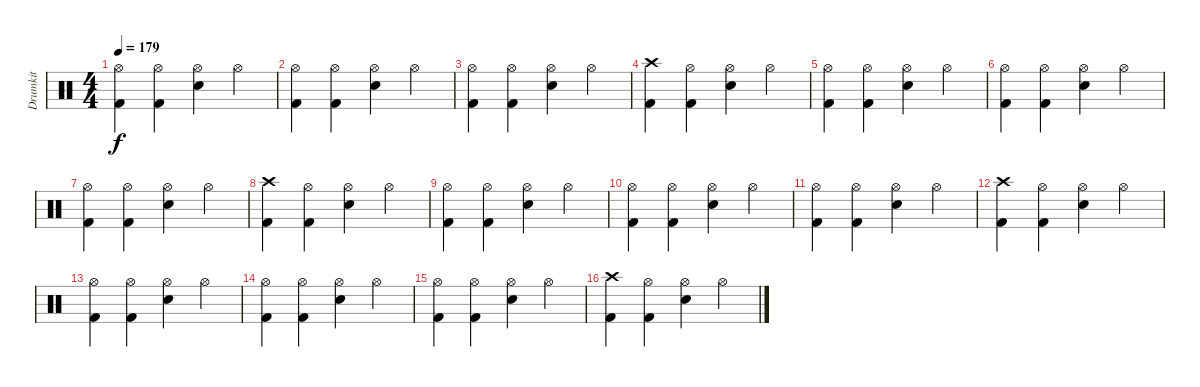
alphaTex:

\track ("Drumkit" "Drumkit") {instrument percussion}
\staff {score}
\articulation defaults
\ts (4 4)
\tempo 179
\clef neutral
\ks c
("Kick (hit) 2" "Hi-Hat (open)").4{dy f} ("Kick (hit) 2" "Hi-Hat (open)").4 ("Snare (hit) 2" "Hi-Hat (open)").4 "Hi-Hat (open)".4 |
("Kick (hit) 2" "Hi-Hat (open)").4 ("Kick (hit) 2" "Hi-Hat (open)").4 ("Snare (hit) 2" "Hi-Hat (open)").4 "Hi-Hat (open)".4 |
("Kick (hit) 2" "Hi-Hat (open)").4 ("Kick (hit) 2" "Hi-Hat (open)").4 ("Snare (hit) 2" "Hi-Hat (open)").4 "Hi-Hat (open)".4 |
("Kick (hit) 2" "Crash high (hit)").4 ("Kick (hit) 2" "Hi-Hat (open)").4 ("Snare (hit) 2" "Hi-Hat (open)").4 "Hi-Hat (open)".4 |
("Kick (hit) 2" "Hi-Hat (open)").4 ("Kick (hit) 2" "Hi-Hat (open)").4 ("Snare (hit) 2" "Hi-Hat (open)").4 "Hi-Hat (open)".4 |
("Kick (hit) 2" "Hi-Hat (open)").4 ("Kick (hit) 2" "Hi-Hat (open)").4 ("Snare (hit) 2" "Hi-Hat (open)").4 "Hi-Hat (open)".4 |
("Kick (hit) 2" "Hi-Hat (open)").4 ("Kick (hit) 2" "Hi-Hat (open)").4 ("Snare (hit) 2" "Hi-Hat (open)").4 "Hi-Hat (open)".4 |
("Kick (hit) 2" "Crash high (hit)").4 ("Kick (hit) 2" "Hi-Hat (open)").4 ("Snare (hit) 2" "Hi-Hat (open)").4 "Hi-Hat (open)".4 |
("Kick (hit) 2" "Hi-Hat (open)").4 ("Kick (hit) 2" "Hi-Hat (open)").4 ("Snare (hit) 2" "Hi-Hat (open)").4 "Hi-Hat (open)".4 |
("Kick (hit) 2" "Hi-Hat (open)").4 ("Kick (hit) 2" "Hi-Hat (open)").4 ("Snare (hit) 2" "Hi-Hat (open)").4 "Hi-Hat (open)".4 |
("Kick (hit) 2" "Hi-Hat (open)").4 ("Kick (hit) 2" "Hi-Hat (open)").4 ("Snare (hit) 2" "Hi-Hat (open)").4 "Hi-Hat (open)".4 |
("Kick (hit) 2" "Crash high (hit)").4 ("Kick (hit) 2" "Hi-Hat (open)").4 ("Snare (hit) 2" "Hi-Hat (open)").4 "Hi-Hat (open)".4 |
("Kick (hit) 2" "Hi-Hat (open)").4 ("Kick (hit) 2" "Hi-Hat (open)").4 ("Snare (hit) 2" "Hi-Hat (open)").4 "Hi-Hat (open)".4 |
("Kick (hit) 2" "Hi-Hat (open)").4 ("Kick (hit) 2" "Hi-Hat (open)").4 ("Snare (hit) 2" "Hi-Hat (open)").4 "Hi-Hat (open)".4 |
("Kick (hit) 2" "Hi-Hat (open)").4 ("Kick (hit) 2" "Hi-Hat (open)").4 ("Snare (hit) 2" "Hi-Hat (open)").4 "Hi-Hat (open)".4 |
("Kick (hit) 2" "Crash high (hit)").4 ("Kick (hit) 2" "Hi-Hat (open)").4 ("Snare (hit) 2" "Hi-Hat (open)").4 "Hi-Hat (open)".4
